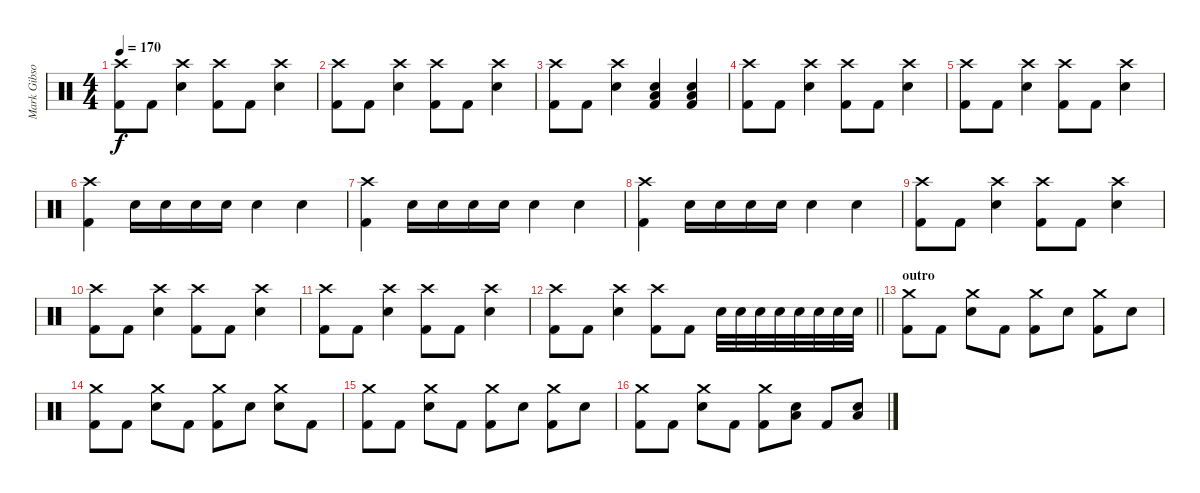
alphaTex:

\track ("Mark Gibson" "Mark Gibso") {instrument percussion}
\staff {score}
\articulation defaults
\ts (4 4)
\tempo 170
\clef neutral
\ks c
("Crash high (hit)" "Kick (hit) 2").8{dy f} "Kick (hit) 2".8 ("Crash high (hit)" "Electric Snare (hit)").4 ("Crash high (hit)" "Kick (hit) 2").8 "Kick (hit) 2".8 ("Crash high (hit)" "Electric Snare (hit)").4 |
("Crash high (hit)" "Kick (hit) 2").8 "Kick (hit) 2".8 ("Crash high (hit)" "Electric Snare (hit)").4 ("Crash high (hit)" "Kick (hit) 2").8 "Kick (hit) 2".8 ("Crash high (hit)" "Electric Snare (hit)").4 |
("Crash high (hit)" "Kick (hit) 2").8 "Kick (hit) 2".8 ("Crash high (hit)" "Electric Snare (hit)").4 ("Electric Snare (hit)" "Low Floor Tom (hit)" "Kick (hit) 2").4 ("Electric Snare (hit)" "Low Floor Tom (hit)" "Kick (hit) 2").4 |
("Crash high (hit)" "Kick (hit) 2").8 "Kick (hit) 2".8 ("Crash high (hit)" "Electric Snare (hit)").4 ("Crash high (hit)" "Kick (hit) 2").8 "Kick (hit) 2".8 ("Crash high (hit)" "Electric Snare (hit)").4 |
("Crash high (hit)" "Kick (hit) 2").8 "Kick (hit) 2".8 ("Crash high (hit)" "Electric Snare (hit)").4 ("Crash high (hit)" "Kick (hit) 2").8 "Kick (hit) 2".8 ("Crash high (hit)" "Electric Snare (hit)").4 |
("Crash high (hit)" "Kick (hit) 2").4 "Electric Snare (hit)".16 "Electric Snare (hit)".16 "Electric Snare (hit)".16 "Electric Snare (hit)".16 "Electric Snare (hit)".4 "Electric Snare (hit)".4 |
("Crash high (hit)" "Kick (hit) 2").4 "Electric Snare (hit)".16 "Electric Snare (hit)".16 "Electric Snare (hit)".16 "Electric Snare (hit)".16 "Electric Snare (hit)".4 "Electric Snare (hit)".4 |
("Crash high (hit)" "Kick (hit) 2").4 "Electric Snare (hit)".16 "Electric Snare (hit)".16 "Electric Snare (hit)".16 "Electric Snare (hit)".16 "Electric Snare (hit)".4 "Electric Snare (hit)".4 |
("Crash high (hit)" "Kick (hit) 2").8 "Kick (hit) 2".8 ("Crash high (hit)" "Electric Snare (hit)").4 ("Crash high (hit)" "Kick (hit) 2").8 "Kick (hit) 2".8 ("Crash high (hit)" "Electric Snare (hit)").4 |
("Crash high (hit)" "Kick (hit) 2").8 "Kick (hit) 2".8 ("Crash high (hit)" "Electric Snare (hit)").4 ("Crash high (hit)" "Kick (hit) 2").8 "Kick (hit) 2".8 ("Crash high (hit)" "Electric Snare (hit)").4 |
("Crash high (hit)" "Kick (hit) 2").8 "Kick (hit) 2".8 ("Crash high (hit)" "Electric Snare (hit)").4 ("Crash high (hit)" "Kick (hit) 2").8 "Kick (hit) 2".8 ("Crash high (hit)" "Electric Snare (hit)").4 |
\barLineRight lightlight
("Crash high (hit)" "Kick (hit) 2").8 "Kick (hit) 2".8 ("Crash high (hit)" "Electric Snare (hit)").4 ("Crash high (hit)" "Kick (hit) 2").8 "Kick (hit) 2".8 "Electric Snare (hit)".32 "Electric Snare (hit)".32 "Electric Snare (hit)".32 "Electric Snare (hit)".32 "Electric Snare (hit)".32 "Electric Snare (hit)".32 "Electric Snare (hit)".32 "Electric Snare (hit)".32 |
\section ("" "outro")
("Crash medium (hit)" "Kick (hit) 2").8 "Kick (hit) 2".8 ("Crash medium (hit)" "Electric Snare (hit)").8 "Kick (hit) 2".8 ("Crash medium (hit)" "Kick (hit) 2").8 "Electric Snare (hit)".8 ("Crash medium (hit)" "Kick (hit) 2").8 "Electric Snare (hit)".8 |
("Crash medium (hit)" "Kick (hit) 2").8 "Kick (hit) 2".8 ("Crash medium (hit)" "Electric Snare (hit)").8 "Kick (hit) 2".8 ("Crash medium (hit)" "Kick (hit) 2").8 "Electric Snare (hit)".8 ("Crash medium (hit)" "Electric Snare (hit)").8 "Kick (hit) 2".8 |
("Crash medium (hit)" "Kick (hit) 2").8 "Kick (hit) 2".8 ("Crash medium (hit)" "Electric Snare (hit)").8 "Kick (hit) 2".8 ("Crash medium (hit)" "Kick (hit) 2").8 "Electric Snare (hit)".8 ("Crash medium (hit)" "Kick (hit) 2").8 "Electric Snare (hit)".8 |
("Crash medium (hit)" "Kick (hit) 2").8 "Kick (hit) 2".8 ("Crash medium (hit)" "Electric Snare (hit)").8 "Kick (hit) 2".8 ("Crash medium (hit)" "Kick (hit) 2").8 ("Low Floor Tom (hit)" "Electric Snare (hit)").8 "Kick (hit) 2".8 ("Low Floor Tom (hit)" "Electric Snare (hit)").8
